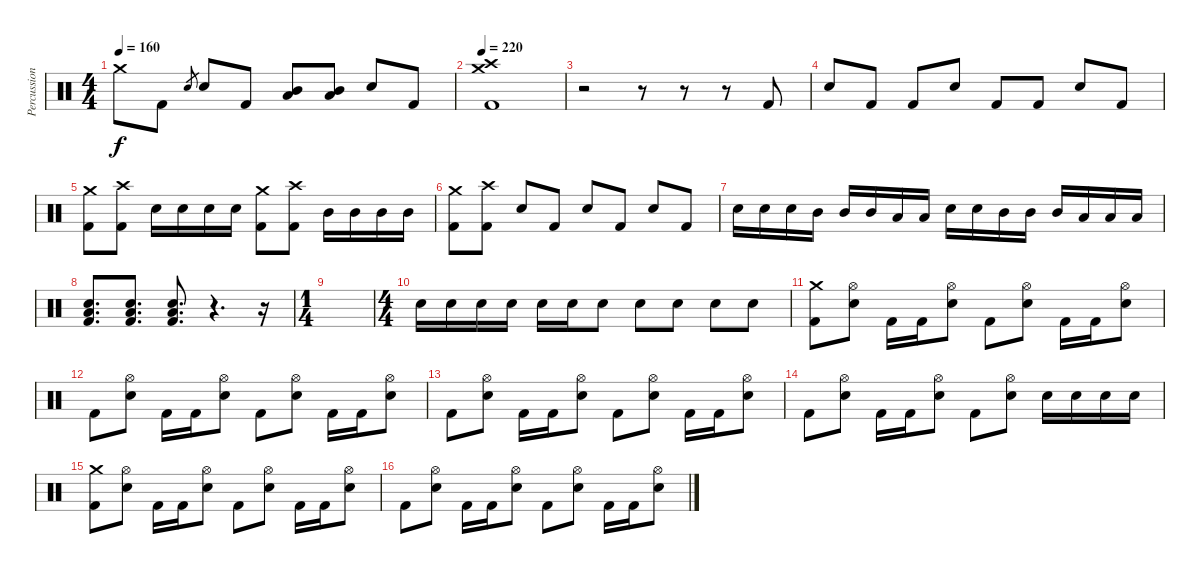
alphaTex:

\track ("Percussions" "Percussion") {instrument percussion}
\staff {score}
\articulation defaults
\ts (4 4)
\tempo 160
\clef neutral
\ks c "Crash medium (hit)".8{dy f} "Kick (hit) 2".8 "Electric Snare (hit)".8{gr} "Electric Snare (hit)".8 "Kick (hit) 2".8
("Low Tom (hit)" "Mid Tom (hit)").8 ("Low Tom (hit)" "Mid Tom (hit)").8 "Electric Snare (hit)".8 "Kick (hit) 2".8 |
\tempo 220
("Kick (hit) 2" "Crash high (hit)" "Crash medium (hit)").1 |
r.2 r.8 r.8 r.8 "Kick (hit) 2".8 |
"Electric Snare (hit)".8 "Kick (hit) 2".8 "Kick (hit) 2".8 "Electric Snare (hit)".8 "Kick (hit) 2".8 "Kick (hit) 2".8 "Electric Snare (hit)".8 "Kick (hit) 2".8 |
("Kick (hit) 2" "Crash medium (hit)").8 ("Kick (hit) 2" "Crash high (hit)").8 "Electric Snare (hit)".16 "Electric Snare (hit)".16 "Electric Snare (hit)".16 "Electric Snare (hit)".16 ("Kick (hit) 2" "Crash medium (hit)").8 ("Kick (hit) 2" "Crash high (hit)").8 "Mid Tom (hit)".16 "Mid Tom (hit)".16 "Mid Tom (hit)".16 "Mid Tom (hit)".16 |
("Kick (hit) 2" "Crash medium (hit)").8 ("Kick (hit) 2" "Crash high (hit)").8 "Electric Snare (hit)".8 "Kick (hit) 2".8 "Electric Snare (hit)".8 "Kick (hit) 2".8 "Electric Snare (hit)".8 "Kick (hit) 2".8 |
"Electric Snare (hit)".16 "Electric Snare (hit)".16 "Electric Snare (hit)".16 "Mid Tom (hit)".16 "Mid Tom (hit)".16 "Mid Tom (hit)".16 "Low Tom (hit)".16 "Low Tom (hit)".16 "Electric Snare (hit)".16 "Electric Snare (hit)".16 "Mid Tom (hit)".16 "Mid Tom (hit)".16 "Mid Tom (hit)".16 "Low Tom (hit)".16 "Low Tom (hit)".16 "Low Tom (hit)".16 |
("Kick (hit) 2" "Electric Snare (hit)" "Low Tom (hit)").8{d} ("Kick (hit) 2" "Electric Snare (hit)" "Low Tom (hit)").8{d} ("Kick (hit) 2" "Electric Snare (hit)" "Low Tom (hit)").8{d} r.4{d} r.16 |
\ts (1 4)
|
\ts (4 4)
"Electric Snare (hit)".16 "Electric Snare (hit)".16 "Electric Snare (hit)".16 "Electric Snare (hit)".16 "Electric Snare (hit)".16 "Electric Snare (hit)".16 "Electric Snare (hit)".8 "Electric Snare (hit)".8 "Electric Snare (hit)".8 "Electric Snare (hit)".8 "Electric Snare (hit)".8 |
("Kick (hit) 2" "Crash medium (hit)").8 ("Electric Snare (hit)" "Hi-Hat (open)").8 "Kick (hit) 2".16 "Kick (hit) 2".16 ("Electric Snare (hit)" "Hi-Hat (open)").8 "Kick (hit) 2".8 ("Electric Snare (hit)" "Hi-Hat (open)").8 "Kick (hit) 2".16 "Kick (hit) 2".16 ("Electric Snare (hit)" "Hi-Hat (open)").8 |
"Kick (hit) 2".8 ("Electric Snare (hit)" "Hi-Hat (open)").8 "Kick (hit) 2".16 "Kick (hit) 2".16 ("Electric Snare (hit)" "Hi-Hat (open)").8 "Kick (hit) 2".8 ("Electric Snare (hit)" "Hi-Hat (open)").8 "Kick (hit) 2".16 "Kick (hit) 2".16 ("Electric Snare (hit)" "Hi-Hat (open)").8 |
"Kick (hit) 2".8 ("Electric Snare (hit)" "Hi-Hat (open)").8 "Kick (hit) 2".16 "Kick (hit) 2".16 ("Electric Snare (hit)" "Hi-Hat (open)").8 "Kick (hit) 2".8 ("Electric Snare (hit)" "Hi-Hat (open)").8 "Kick (hit) 2".16 "Kick (hit) 2".16 ("Electric Snare (hit)" "Hi-Hat (open)").8 |
"Kick (hit) 2".8 ("Electric Snare (hit)" "Hi-Hat (open)").8 "Kick (hit) 2".16 "Kick (hit) 2".16 ("Electric Snare (hit)" "Hi-Hat (open)").8 "Kick (hit) 2".8 ("Electric Snare (hit)" "Hi-Hat (open)").8 "Electric Snare (hit)".16 "Electric Snare (hit)".16 "Electric Snare (hit)".16 "Electric Snare (hit)".16 |
("Kick (hit) 2" "Crash medium (hit)").8 ("Electric Snare (hit)" "Hi-Hat (open)").8 "Kick (hit) 2".16 "Kick (hit) 2".16 ("Electric Snare (hit)" "Hi-Hat (open)").8 "Kick (hit) 2".8 ("Electric Snare (hit)" "Hi-Hat (open)").8 "Kick (hit) 2".16 "Kick (hit) 2".16 ("Electric Snare (hit)" "Hi-Hat (open)").8 |
"Kick (hit) 2".8 ("Electric Snare (hit)" "Hi-Hat (open)").8 "Kick (hit) 2".16 "Kick (hit) 2".16 ("Electric Snare (hit)" "Hi-Hat (open)").8 "Kick (hit) 2".8 ("Electric Snare (hit)" "Hi-Hat (open)").8 "Kick (hit) 2".16 "Kick (hit) 2".16 ("Electric Snare (hit)" "Hi-Hat (open)").8
